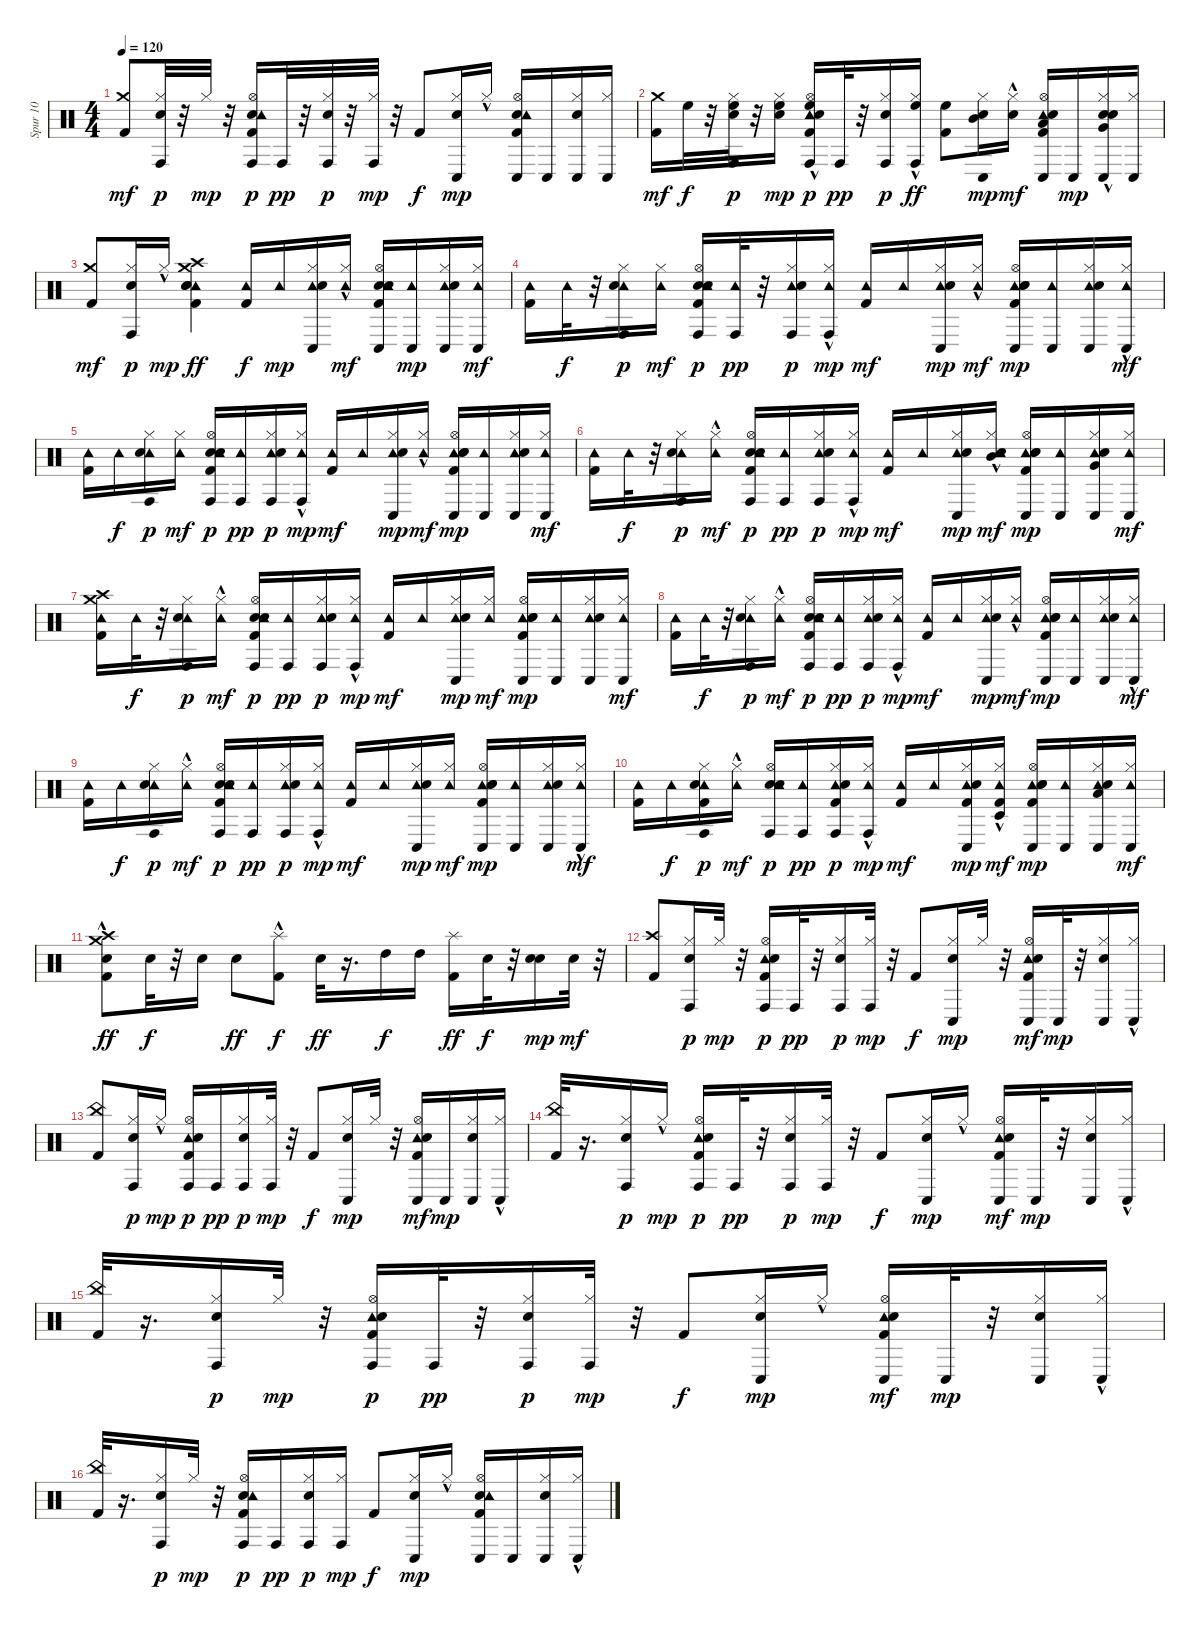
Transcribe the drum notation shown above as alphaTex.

\track ("Spur 10" "Spur 10") {instrument percussion}
\staff {score}
\articulation defaults
\ts (4 4)
\tempo 120
\clef neutral
\ks c
("Crash medium (hit)" "Kick (hit) 2").8{dy mf} ("Hi-Hat (closed)" "Snare (hit)" "Conga high (hit)").32{dy p} r.32 "Hi-Hat (closed)".32{dy mp} r.32 ("Hi-Hat (open)" "Snare (hit) 2" "Tambourine (hit)" "Kick (hit) 2" "Conga high (hit)").16{dy p} "Conga high (hit)".32{dy pp} r.32 ("Hi-Hat (closed)" "Snare (hit)" "Conga high (hit)").32{dy p} r.32 ("Hi-Hat (closed)" "Conga high (hit)").32{dy mp} r.32 "Kick (hit) 2".8{dy f} ("Hi-Hat (closed)" "Snare (hit)" "Conga low (hit)").16{dy mp} "Hi-Hat (closed)"{hac}.16 ("Hi-Hat (open)" "Snare (hit) 2" "Kick (hit) 2" "Tambourine (hit)" "Conga low (hit)").16 "Conga low (hit)".16 ("Hi-Hat (closed)" "Snare (hit)" "Conga low (hit)").16 ("Conga low (hit)" "Hi-Hat (closed)").16 |
("Crash medium (hit)" "Kick (hit) 2").16{dy mf} "High Floor Tom (hit)".32{dy f} r.32 ("High Floor Tom (hit)" "Hi-Hat (closed)" "Snare (hit)" "Conga high (hit)").32{dy p} r.32 ("Hi-Hat (closed)" "Snare (hit) 2" "High Floor Tom (hit)").16{dy mp} ("High Floor Tom (hit)"{hac} "Hi-Hat (open)" "Tambourine (hit)" "Kick (hit) 2" "Snare (hit) 2"{hac} "Conga high (hit)").16{dy p} "Conga high (hit)".32{dy pp} r.32 ("Hi-Hat (closed)" "Snare (hit)" "Conga high (hit)").16{dy p} ("Hi-Hat (closed)"{hac} "Conga high (hit)" "High Floor Tom (hit)").16{dy ff} ("High Floor Tom (hit)" "Kick (hit) 2").8 ("Hi-Hat (closed)" "Snare (hit)" "Conga low (hit)" "Mid Tom (hit)").16{dy mp} ("Hi-Hat (closed)"{hac} "Snare (hit) 2").16{dy mf} ("Hi-Hat (open)" "Low Tom (hit)" "Kick (hit) 2" "Tambourine (hit)" "Conga low (hit)" "Snare (hit) 2").16 "Conga low (hit)".16{dy mp} ("Very Low Tom (hit)" "Hi-Hat (closed)" "Snare (hit)" "Conga low (hit)" "Snare (hit) 2"{hac}).16 ("Conga low (hit)" "Hi-Hat (closed)").16 |
("Crash medium (hit)" "Kick (hit) 2").8{dy mf} ("Hi-Hat (closed)" "Snare (hit)" "Conga high (hit)").16{dy p} "Hi-Hat (closed)"{hac}.16{dy mp} ("Crash high (hit)" "Tambourine (hit)" "Hand Clap (hit)" "Kick (hit) 2" "Snare (hit) 2" "Crash medium (hit)").4{dy ff} ("Tambourine (hit)" "Kick (hit) 2").16{dy f} "Tambourine (hit)".16{dy mp} ("Hi-Hat (closed)" "Tambourine (hit)" "Snare (hit)" "Conga low (hit)").16 ("Hi-Hat (closed)"{hac} "Tambourine (hit)").16{dy mf} ("Snare (hit) 2" "Hi-Hat (open)" "Tambourine (hit)" "Hand Clap (hit)" "Kick (hit) 2" "Conga low (hit)").16 ("Tambourine (hit)" "Conga low (hit)").16{dy mp} ("Hi-Hat (closed)" "Tambourine (hit)" "Snare (hit)" "Conga low (hit)").16 ("Conga low (hit)" "Hi-Hat (closed)" "Tambourine (hit)").16{dy mf} |
("Tambourine (hit)" "Kick (hit) 2").16 "Tambourine (hit)".32{dy f} r.32 ("Hi-Hat (closed)" "Tambourine (hit)" "Snare (hit)" "Conga high (hit)").16{dy p} ("Hi-Hat (closed)" "Tambourine (hit)").16{dy mf} ("Hand Clap (hit)" "Hi-Hat (open)" "Tambourine (hit)" "Snare (hit) 2" "Kick (hit) 2" "Conga high (hit)").16{dy p} ("Tambourine (hit)" "Conga high (hit)").32{dy pp} r.32 ("Hi-Hat (closed)" "Tambourine (hit)" "Snare (hit)" "Conga high (hit)").16{dy p} ("Hi-Hat (closed)"{hac} "Tambourine (hit)" "Conga high (hit)").16{dy mp} ("Tambourine (hit)" "Kick (hit) 2").16{dy mf} "Tambourine (hit)".16 ("Hi-Hat (closed)" "Tambourine (hit)" "Snare (hit)" "Conga low (hit)").16{dy mp} ("Hi-Hat (closed)"{hac} "Tambourine (hit)").16{dy mf} ("Hi-Hat (open)" "Tambourine (hit)" "Hand Clap (hit)" "Kick (hit) 2" "Conga low (hit)" "Snare (hit) 2").16{dy mp} ("Tambourine (hit)" "Conga low (hit)").16 ("Hi-Hat (closed)" "Tambourine (hit)" "Snare (hit)" "Conga low (hit)").16 ("Conga low (hit)" "Hi-Hat (closed)"{hac} "Tambourine (hit)").16{dy mf} |
("Tambourine (hit)" "Kick (hit) 2").16 "Tambourine (hit)".16{dy f} ("Hi-Hat (closed)" "Tambourine (hit)" "Snare (hit)" "Conga high (hit)").16{dy p} ("Hi-Hat (closed)" "Tambourine (hit)").16{dy mf} ("Hand Clap (hit)" "Hi-Hat (open)" "Tambourine (hit)" "Snare (hit) 2" "Kick (hit) 2" "Conga high (hit)").16{dy p} ("Tambourine (hit)" "Conga high (hit)").16{dy pp} ("Hi-Hat (closed)" "Tambourine (hit)" "Snare (hit)" "Conga high (hit)").16{dy p} ("Hi-Hat (closed)"{hac} "Tambourine (hit)" "Conga high (hit)").16{dy mp} ("Tambourine (hit)" "Kick (hit) 2").16{dy mf} "Tambourine (hit)".16 ("Hi-Hat (closed)" "Tambourine (hit)" "Snare (hit)" "Conga low (hit)").16{dy mp} ("Hi-Hat (closed)"{hac} "Tambourine (hit)").16{dy mf} ("Hi-Hat (open)" "Tambourine (hit)" "Hand Clap (hit)" "Kick (hit) 2" "Conga low (hit)" "Snare (hit) 2").16{dy mp} ("Tambourine (hit)" "Conga low (hit)").16 ("Hi-Hat (closed)" "Tambourine (hit)" "Snare (hit)" "Conga low (hit)").16 ("Conga low (hit)" "Hi-Hat (closed)" "Tambourine (hit)").16{dy mf} |
("Tambourine (hit)" "Kick (hit) 2").16 "Tambourine (hit)".32{dy f} r.32 ("Hi-Hat (closed)" "Tambourine (hit)" "Snare (hit)" "Conga high (hit)").16{dy p} ("Hi-Hat (closed)"{hac} "Tambourine (hit)").16{dy mf} ("Hand Clap (hit)" "Hi-Hat (open)" "Tambourine (hit)" "Snare (hit) 2" "Kick (hit) 2" "Conga high (hit)").16{dy p} ("Tambourine (hit)" "Conga high (hit)").16{dy pp} ("Hi-Hat (closed)" "Tambourine (hit)" "Snare (hit)" "Conga high (hit)").16{dy p} ("Hi-Hat (closed)"{hac} "Tambourine (hit)" "Conga high (hit)").16{dy mp} ("Tambourine (hit)" "Kick (hit) 2").16{dy mf} "Tambourine (hit)".16 ("Hi-Hat (closed)" "Tambourine (hit)" "Snare (hit)" "Conga low (hit)").16{dy mp} ("Hi-Hat (closed)"{hac} "Tambourine (hit)" "Mid Tom (hit)" "Snare (hit) 2").16{dy mf} ("Hi-Hat (open)" "Tambourine (hit)" "Hand Clap (hit)" "Kick (hit) 2" "Conga low (hit)" "Snare (hit) 2").16{dy mp} ("Tambourine (hit)" "Conga low (hit)").16 ("Hi-Hat (closed)" "Tambourine (hit)" "Snare (hit)" "Conga low (hit)" "Very Low Tom (hit)").16 ("Conga low (hit)" "Hi-Hat (closed)" "Tambourine (hit)").16{dy mf} |
("Crash high (hit)" "Crash medium (hit)" "Tambourine (hit)" "Kick (hit) 2").16 "Tambourine (hit)".32{dy f} r.32 ("Hi-Hat (closed)" "Tambourine (hit)" "Snare (hit)" "Conga high (hit)").16{dy p} ("Hi-Hat (closed)"{hac} "Tambourine (hit)").16{dy mf} ("Hand Clap (hit)" "Hi-Hat (open)" "Tambourine (hit)" "Snare (hit) 2" "Kick (hit) 2" "Conga high (hit)").16{dy p} ("Tambourine (hit)" "Conga high (hit)").16{dy pp} ("Hi-Hat (closed)" "Tambourine (hit)" "Snare (hit)" "Conga high (hit)").16{dy p} ("Hi-Hat (closed)"{hac} "Tambourine (hit)" "Conga high (hit)").16{dy mp} ("Tambourine (hit)" "Kick (hit) 2").16{dy mf} "Tambourine (hit)".16 ("Hi-Hat (closed)" "Tambourine (hit)" "Snare (hit)" "Conga low (hit)").16{dy mp} ("Hi-Hat (closed)" "Tambourine (hit)").16{dy mf} ("Hi-Hat (open)" "Tambourine (hit)" "Hand Clap (hit)" "Kick (hit) 2" "Conga low (hit)" "Snare (hit) 2").16{dy mp} ("Tambourine (hit)" "Conga low (hit)").16 ("Hi-Hat (closed)" "Tambourine (hit)" "Snare (hit)" "Conga low (hit)").16 ("Conga low (hit)" "Hi-Hat (closed)" "Tambourine (hit)").16{dy mf} |
("Tambourine (hit)" "Kick (hit) 2").16 "Tambourine (hit)".32{dy f} r.32 ("Hi-Hat (closed)" "Tambourine (hit)" "Snare (hit)" "Conga high (hit)").16{dy p} ("Hi-Hat (closed)"{hac} "Tambourine (hit)").16{dy mf} ("Hand Clap (hit)" "Hi-Hat (open)" "Tambourine (hit)" "Snare (hit) 2" "Kick (hit) 2" "Conga high (hit)").16{dy p} ("Tambourine (hit)" "Conga high (hit)").16{dy pp} ("Hi-Hat (closed)" "Tambourine (hit)" "Snare (hit)" "Conga high (hit)").16{dy p} ("Hi-Hat (closed)"{hac} "Tambourine (hit)" "Conga high (hit)").16{dy mp} ("Tambourine (hit)" "Kick (hit) 2").16{dy mf} "Tambourine (hit)".16 ("Hi-Hat (closed)" "Tambourine (hit)" "Snare (hit)" "Conga low (hit)").16{dy mp} ("Hi-Hat (closed)"{hac} "Tambourine (hit)").16{dy mf} ("Hi-Hat (open)" "Tambourine (hit)" "Hand Clap (hit)" "Kick (hit) 2" "Conga low (hit)" "Snare (hit) 2").16{dy mp} ("Tambourine (hit)" "Conga low (hit)").16 ("Hi-Hat (closed)" "Tambourine (hit)" "Snare (hit)" "Conga low (hit)").16 ("Conga low (hit)" "Hi-Hat (closed)"{hac} "Tambourine (hit)").16{dy mf} |
("Tambourine (hit)" "Kick (hit) 2").16 "Tambourine (hit)".16{dy f} ("Hi-Hat (closed)" "Tambourine (hit)" "Snare (hit)" "Conga high (hit)").16{dy p} ("Hi-Hat (closed)"{hac} "Tambourine (hit)").16{dy mf} ("Hand Clap (hit)" "Hi-Hat (open)" "Tambourine (hit)" "Snare (hit) 2" "Kick (hit) 2" "Conga high (hit)").16{dy p} ("Tambourine (hit)" "Conga high (hit)").16{dy pp} ("Hi-Hat (closed)" "Tambourine (hit)" "Snare (hit)" "Conga high (hit)").16{dy p} ("Hi-Hat (closed)"{hac} "Tambourine (hit)" "Conga high (hit)").16{dy mp} ("Tambourine (hit)" "Kick (hit) 2").16{dy mf} "Tambourine (hit)".16 ("Hi-Hat (closed)" "Tambourine (hit)" "Snare (hit)" "Conga low (hit)").16{dy mp} ("Hi-Hat (closed)" "Tambourine (hit)").16{dy mf} ("Hi-Hat (open)" "Tambourine (hit)" "Hand Clap (hit)" "Kick (hit) 2" "Conga low (hit)" "Snare (hit) 2").16{dy mp} ("Tambourine (hit)" "Conga low (hit)").16 ("Hi-Hat (closed)" "Tambourine (hit)" "Snare (hit)" "Conga low (hit)").16 ("Conga low (hit)" "Hi-Hat (closed)"{hac} "Tambourine (hit)").16{dy mf} |
("Tambourine (hit)" "Kick (hit) 2").16 "Tambourine (hit)".16{dy f} ("Hi-Hat (closed)" "Tambourine (hit)" "Snare (hit)" "Kick (hit) 2" "Conga high (hit)").16{dy p} ("Hi-Hat (closed)"{hac} "Tambourine (hit)").16{dy mf} ("Hand Clap (hit)" "Hi-Hat (open)" "Tambourine (hit)" "Snare (hit) 2" "Conga high (hit)").16{dy p} ("Tambourine (hit)" "Conga high (hit)").16{dy pp} ("Hi-Hat (closed)" "Tambourine (hit)" "Snare (hit)" "Kick (hit) 2" "Conga high (hit)").16{dy p} ("Hi-Hat (closed)"{hac} "Tambourine (hit)" "Conga high (hit)").16{dy mp} ("Tambourine (hit)" "Kick (hit) 2").16{dy mf} "Tambourine (hit)".16 ("Kick (hit) 2" "Hi-Hat (closed)" "Tambourine (hit)" "Snare (hit)" "Conga low (hit)").16{dy mp} ("Kick (hit) 2" "Hi-Hat (closed)"{hac} "Tambourine (hit)" "Timbale low (hit)").16{dy mf} ("Hi-Hat (open)" "Tambourine (hit)" "Snare (hit) 2" "Kick (hit) 2" "Conga low (hit)" "Snare (hit) 2").16{dy mp} ("Tambourine (hit)" "Conga low (hit)").16 ("Hi-Hat (closed)" "Tambourine (hit)" "Low Floor Tom (hit)" "Snare (hit)" "Conga low (hit)").16 ("Conga low (hit)" "Hi-Hat (closed)" "Tambourine (hit)").16{dy mf} |
("Crash high (hit)" "Snare (hit) 2" "Crash medium (hit)" "Kick (hit) 2"{hac}).8{dy ff} "Snare (hit) 2".32{dy f} r.32 "Snare (hit) 2".16 "Snare (hit) 2".8{dy ff} ("Kick (hit) 2"{hac} "Splash (hit)"{hac}).8{dy f} "Snare (hit) 2".32{dy ff} r.16{d} "High Tom (hit)".16{dy f} "High Tom (hit)".16 ("Kick (hit) 2" "Splash (hit)").16{dy ff} "Snare (hit) 2".32{dy f} r.32 ("Snare (hit) 2" "Hand Clap (hit)").16{dy mp} "Snare (hit) 2".32{dy mf} r.32 |
("Crash high (hit)" "Kick (hit) 2").8 ("Hi-Hat (closed)" "Snare (hit)" "Conga high (hit)").16{dy p} "Hi-Hat (closed)".32{dy mp} r.32 ("Hi-Hat (open)" "Tambourine (hit)" "Kick (hit) 2" "Snare (hit) 2" "Conga high (hit)").16{dy p} "Conga high (hit)".32{dy pp} r.32 ("Hi-Hat (closed)" "Snare (hit)" "Conga high (hit)").16{dy p} ("Hi-Hat (closed)" "Conga high (hit)").32{dy mp} r.32 "Kick (hit) 2".8{dy f} ("Hi-Hat (closed)" "Snare (hit)" "Conga low (hit)").16{dy mp} "Hi-Hat (closed)".32 r.32 ("Hi-Hat (open)" "Kick (hit) 2" "Tambourine (hit)" "Conga low (hit)" "Snare (hit) 2").16{dy mf} "Conga low (hit)".32{dy mp} r.32 ("Hi-Hat (closed)" "Snare (hit)" "Conga low (hit)").16 ("Conga low (hit)" "Hi-Hat (closed)"{hac}).16 |
("China (hit)" "Kick (hit) 2").8 ("Hi-Hat (closed)" "Snare (hit)" "Conga high (hit)").16{dy p} "Hi-Hat (closed)"{hac}.16{dy mp} ("Hi-Hat (open)" "Tambourine (hit)" "Kick (hit) 2" "Snare (hit) 2" "Conga high (hit)").16{dy p} "Conga high (hit)".16{dy pp} ("Hi-Hat (closed)" "Snare (hit)" "Conga high (hit)").16{dy p} ("Hi-Hat (closed)" "Conga high (hit)").32{dy mp} r.32 "Kick (hit) 2".8{dy f} ("Hi-Hat (closed)" "Snare (hit)" "Conga low (hit)").16{dy mp} "Hi-Hat (closed)".32 r.32 ("Hi-Hat (open)" "Kick (hit) 2" "Tambourine (hit)" "Conga low (hit)" "Snare (hit) 2").16{dy mf} "Conga low (hit)".16{dy mp} ("Hi-Hat (closed)" "Snare (hit)" "Conga low (hit)").16 ("Conga low (hit)" "Hi-Hat (closed)"{hac}).16 |
("China (hit)" "Kick (hit) 2").32 r.16{d} ("Hi-Hat (closed)" "Snare (hit)" "Conga high (hit)").16{dy p} "Hi-Hat (closed)"{hac}.16{dy mp} ("Hi-Hat (open)" "Tambourine (hit)" "Kick (hit) 2" "Snare (hit) 2" "Conga high (hit)").16{dy p} "Conga high (hit)".32{dy pp} r.32 ("Hi-Hat (closed)" "Snare (hit)" "Conga high (hit)").16{dy p} ("Hi-Hat (closed)" "Conga high (hit)").32{dy mp} r.32 "Kick (hit) 2".8{dy f} ("Hi-Hat (closed)" "Snare (hit)" "Conga low (hit)").16{dy mp} "Hi-Hat (closed)"{hac}.16 ("Hi-Hat (open)" "Kick (hit) 2" "Tambourine (hit)" "Conga low (hit)" "Snare (hit) 2").16{dy mf} "Conga low (hit)".32{dy mp} r.32 ("Hi-Hat (closed)" "Snare (hit)" "Conga low (hit)").16 ("Conga low (hit)" "Hi-Hat (closed)"{hac}).16 |
("China (hit)" "Kick (hit) 2").32 r.16{d} ("Hi-Hat (closed)" "Snare (hit)" "Conga high (hit)").16{dy p} "Hi-Hat (closed)".32{dy mp} r.32 ("Hi-Hat (open)" "Tambourine (hit)" "Kick (hit) 2" "Snare (hit) 2" "Conga high (hit)").16{dy p} "Conga high (hit)".32{dy pp} r.32 ("Hi-Hat (closed)" "Snare (hit)" "Conga high (hit)").16{dy p} ("Hi-Hat (closed)" "Conga high (hit)").32{dy mp} r.32 "Kick (hit) 2".8{dy f} ("Hi-Hat (closed)" "Snare (hit)" "Conga low (hit)").16{dy mp} "Hi-Hat (closed)"{hac}.16 ("Hi-Hat (open)" "Kick (hit) 2" "Tambourine (hit)" "Conga low (hit)" "Snare (hit) 2").16{dy mf} "Conga low (hit)".32{dy mp} r.32 ("Hi-Hat (closed)" "Snare (hit)" "Conga low (hit)").16 ("Conga low (hit)" "Hi-Hat (closed)"{hac}).16 |
("China (hit)" "Kick (hit) 2").32 r.16{d} ("Hi-Hat (closed)" "Snare (hit)" "Conga high (hit)").16{dy p} "Hi-Hat (closed)".32{dy mp} r.32 ("Hi-Hat (open)" "Snare (hit) 2" "Tambourine (hit)" "Kick (hit) 2" "Conga high (hit)").16{dy p} "Conga high (hit)".16{dy pp} ("Hi-Hat (closed)" "Snare (hit)" "Conga high (hit)").16{dy p} ("Hi-Hat (closed)" "Conga high (hit)").16{dy mp} "Kick (hit) 2".8{dy f} ("Hi-Hat (closed)" "Snare (hit)" "Conga low (hit)").16{dy mp} "Hi-Hat (closed)"{hac}.16 ("Hi-Hat (open)" "Snare (hit) 2" "Kick (hit) 2" "Tambourine (hit)" "Conga low (hit)").16 "Conga low (hit)".16 ("Hi-Hat (closed)" "Snare (hit)" "Conga low (hit)").16 ("Conga low (hit)" "Hi-Hat (closed)"{hac}).16
